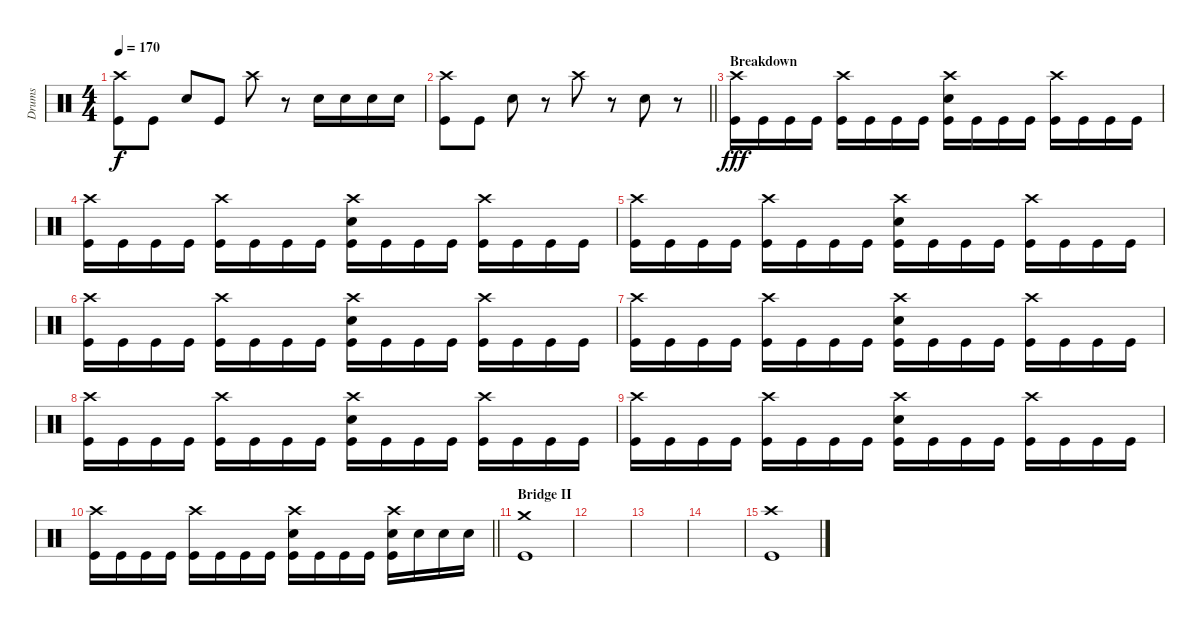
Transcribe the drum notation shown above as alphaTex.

\track ("Drums" "Drums") {instrument percussion}
\staff {score}
\articulation defaults
\ts (4 4)
\tempo 170
\clef neutral
\ks c
("Crash high (hit)" "Kick (hit)").8{dy f} "Kick (hit)".8 "Snare (hit) 2".8 "Kick (hit)".8 "Crash high (hit)".8 r.8 "Snare (hit) 2".16 "Snare (hit) 2".16 "Snare (hit) 2".16 "Snare (hit) 2".16 |
\barLineRight lightlight
("Crash high (hit)" "Kick (hit)").8 "Kick (hit)".8 "Snare (hit) 2".8 r.8 "Crash high (hit)".8 r.8 "Snare (hit) 2".8 r.8 |
\section ("" "Breakdown")
("Crash high (hit)" "Kick (hit)").16{dy fff} "Kick (hit)".16 "Kick (hit)".16 "Kick (hit)".16 ("Crash high (hit)" "Kick (hit)").16 "Kick (hit)".16 "Kick (hit)".16 "Kick (hit)".16 ("Crash high (hit)" "Snare (hit) 2" "Kick (hit)").16 "Kick (hit)".16 "Kick (hit)".16 "Kick (hit)".16 ("Crash high (hit)" "Kick (hit)").16 "Kick (hit)".16 "Kick (hit)".16 "Kick (hit)".16 |
("Crash high (hit)" "Kick (hit)").16 "Kick (hit)".16 "Kick (hit)".16 "Kick (hit)".16 ("Crash high (hit)" "Kick (hit)").16 "Kick (hit)".16 "Kick (hit)".16 "Kick (hit)".16 ("Crash high (hit)" "Snare (hit) 2" "Kick (hit)").16 "Kick (hit)".16 "Kick (hit)".16 "Kick (hit)".16 ("Crash high (hit)" "Kick (hit)").16 "Kick (hit)".16 "Kick (hit)".16 "Kick (hit)".16 |
("Crash high (hit)" "Kick (hit)").16 "Kick (hit)".16 "Kick (hit)".16 "Kick (hit)".16 ("Crash high (hit)" "Kick (hit)").16 "Kick (hit)".16 "Kick (hit)".16 "Kick (hit)".16 ("Crash high (hit)" "Snare (hit) 2" "Kick (hit)").16 "Kick (hit)".16 "Kick (hit)".16 "Kick (hit)".16 ("Crash high (hit)" "Kick (hit)").16 "Kick (hit)".16 "Kick (hit)".16 "Kick (hit)".16 |
("Crash high (hit)" "Kick (hit)").16 "Kick (hit)".16 "Kick (hit)".16 "Kick (hit)".16 ("Crash high (hit)" "Kick (hit)").16 "Kick (hit)".16 "Kick (hit)".16 "Kick (hit)".16 ("Crash high (hit)" "Snare (hit) 2" "Kick (hit)").16 "Kick (hit)".16 "Kick (hit)".16 "Kick (hit)".16 ("Crash high (hit)" "Kick (hit)").16 "Kick (hit)".16 "Kick (hit)".16 "Kick (hit)".16 |
("Crash high (hit)" "Kick (hit)").16 "Kick (hit)".16 "Kick (hit)".16 "Kick (hit)".16 ("Crash high (hit)" "Kick (hit)").16 "Kick (hit)".16 "Kick (hit)".16 "Kick (hit)".16 ("Crash high (hit)" "Snare (hit) 2" "Kick (hit)").16 "Kick (hit)".16 "Kick (hit)".16 "Kick (hit)".16 ("Crash high (hit)" "Kick (hit)").16 "Kick (hit)".16 "Kick (hit)".16 "Kick (hit)".16 |
("Crash high (hit)" "Kick (hit)").16 "Kick (hit)".16 "Kick (hit)".16 "Kick (hit)".16 ("Crash high (hit)" "Kick (hit)").16 "Kick (hit)".16 "Kick (hit)".16 "Kick (hit)".16 ("Crash high (hit)" "Snare (hit) 2" "Kick (hit)").16 "Kick (hit)".16 "Kick (hit)".16 "Kick (hit)".16 ("Crash high (hit)" "Kick (hit)").16 "Kick (hit)".16 "Kick (hit)".16 "Kick (hit)".16 |
("Crash high (hit)" "Kick (hit)").16 "Kick (hit)".16 "Kick (hit)".16 "Kick (hit)".16 ("Crash high (hit)" "Kick (hit)").16 "Kick (hit)".16 "Kick (hit)".16 "Kick (hit)".16 ("Crash high (hit)" "Snare (hit) 2" "Kick (hit)").16 "Kick (hit)".16 "Kick (hit)".16 "Kick (hit)".16 ("Crash high (hit)" "Kick (hit)").16 "Kick (hit)".16 "Kick (hit)".16 "Kick (hit)".16 |
\barLineRight lightlight
("Crash high (hit)" "Kick (hit)").16 "Kick (hit)".16 "Kick (hit)".16 "Kick (hit)".16 ("Crash high (hit)" "Kick (hit)").16 "Kick (hit)".16 "Kick (hit)".16 "Kick (hit)".16 ("Crash high (hit)" "Snare (hit) 2" "Kick (hit)").16 "Kick (hit)".16 "Kick (hit)".16 "Kick (hit)".16 ("Crash high (hit)" "Snare (hit) 2" "Kick (hit)").16 "Snare (hit) 2".16 "Snare (hit) 2".16 "Snare (hit) 2".16 |
\section ("" "Bridge II")
("Crash medium (hit)" "Kick (hit)").1 |
|
|
|
("Crash high (hit)" "Kick (hit)").1
